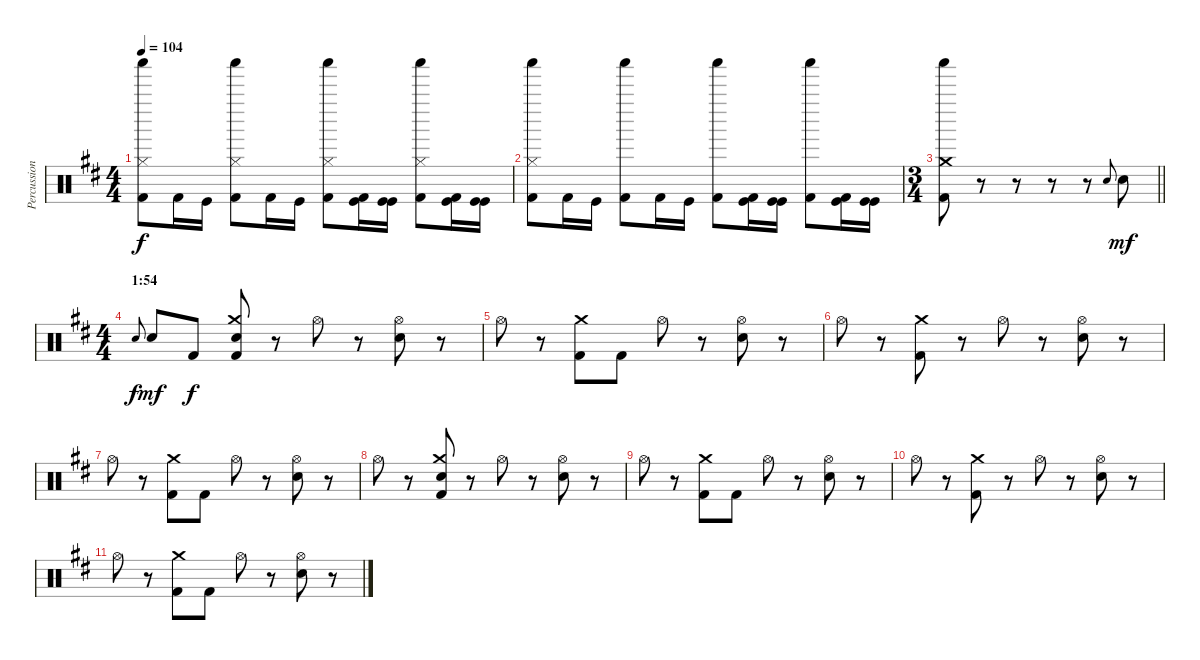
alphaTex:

\track ("Percussion" "Percussion") {instrument percussion}
\staff {score}
\articulation defaults
\ts (4 4)
\tempo 104
\clef neutral
\ks d
("Shaker (hit)" "Hi-Hat (closed)" "Kick (hit) 2").8{dy f} "Kick (hit) 2".16 "Kick (hit)".16 ("Shaker (hit)" "Hi-Hat (closed)" "Kick (hit) 2").8 "Kick (hit) 2".16 "Kick (hit)".16 ("Shaker (hit)" "Hi-Hat (closed)" "Kick (hit) 2").8 ("Kick (hit)" "Kick (hit) 2").16 ("Kick (hit)" "Kick (hit)").16 ("Shaker (hit)" "Hi-Hat (closed)" "Kick (hit) 2").8 ("Kick (hit)" "Kick (hit) 2").16 ("Kick (hit)" "Kick (hit)").16 |
("Shaker (hit)" "Hi-Hat (closed)" "Kick (hit) 2").8 "Kick (hit) 2".16 "Kick (hit)".16 ("Shaker (hit)" "Kick (hit) 2").8 "Kick (hit) 2".16 "Kick (hit)".16 ("Shaker (hit)" "Kick (hit) 2").8 ("Kick (hit)" "Kick (hit) 2").16 ("Kick (hit)" "Kick (hit)").16 ("Shaker (hit)" "Kick (hit) 2").8 ("Kick (hit)" "Kick (hit) 2").16 ("Kick (hit)" "Kick (hit)").16 |
\ts (3 4)
\barLineRight lightlight
("Shaker (hit)" "Crash medium (hit)" "Kick (hit) 2").8 r.8 r.8 r.8 r.8 "Snare (hit) 2".8{gr onbeat} "Snare (hit) 2".8{dy mf} |
\ts (4 4)
\section ("" "1:54")
"Snare (hit) 2".8{gr onbeat dy f} "Snare (hit) 2".8{dy mf} "Kick (hit) 2".8{dy f} ("Snare (hit) 2" "Crash medium (hit)" "Kick (hit) 2").8 r.8 "Hi-Hat (open)".8 r.8 ("Hi-Hat (open)" "Snare (hit) 2").8 r.8 |
"Hi-Hat (open)".8 r.8 ("Crash medium (hit)" "Kick (hit) 2").8 "Kick (hit) 2".8 "Hi-Hat (open)".8 r.8 ("Hi-Hat (open)" "Snare (hit) 2").8 r.8 |
"Hi-Hat (open)".8 r.8 ("Crash medium (hit)" "Kick (hit) 2").8 r.8 "Hi-Hat (open)".8 r.8 ("Hi-Hat (open)" "Snare (hit) 2").8 r.8 |
"Hi-Hat (open)".8 r.8 ("Crash medium (hit)" "Kick (hit) 2").8 "Kick (hit) 2".8 "Hi-Hat (open)".8 r.8 ("Hi-Hat (open)" "Snare (hit) 2").8 r.8 |
"Hi-Hat (open)".8 r.8 ("Snare (hit) 2" "Crash medium (hit)" "Kick (hit) 2").8 r.8 "Hi-Hat (open)".8 r.8 ("Hi-Hat (open)" "Snare (hit) 2").8 r.8 |
"Hi-Hat (open)".8 r.8 ("Crash medium (hit)" "Kick (hit) 2").8 "Kick (hit) 2".8 "Hi-Hat (open)".8 r.8 ("Hi-Hat (open)" "Snare (hit) 2").8 r.8 |
"Hi-Hat (open)".8 r.8 ("Crash medium (hit)" "Kick (hit) 2").8 r.8 "Hi-Hat (open)".8 r.8 ("Hi-Hat (open)" "Snare (hit) 2").8 r.8 |
"Hi-Hat (open)".8 r.8 ("Crash medium (hit)" "Kick (hit) 2").8 "Kick (hit) 2".8 "Hi-Hat (open)".8 r.8 ("Hi-Hat (open)" "Snare (hit) 2").8 r.8
